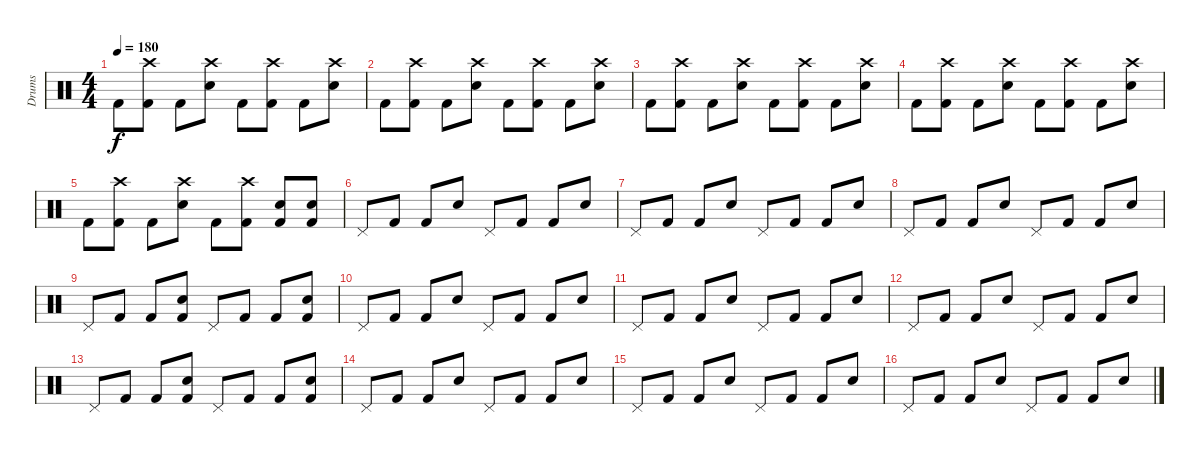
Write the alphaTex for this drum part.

\track ("Drums" "Drums") {instrument percussion}
\staff {score}
\articulation defaults
\ts (4 4)
\tempo 180
\clef neutral
\ks c "Kick (hit) 2".8{dy f}
("Crash high (hit)" "Kick (hit) 2").8 "Kick (hit) 2".8 ("Crash high (hit)" "Electric Snare (hit)").8 "Kick (hit) 2".8 ("Crash high (hit)" "Kick (hit) 2").8 "Kick (hit) 2".8 ("Crash high (hit)" "Electric Snare (hit)").8 |
"Kick (hit) 2".8 ("Crash high (hit)" "Kick (hit) 2").8 "Kick (hit) 2".8 ("Crash high (hit)" "Electric Snare (hit)").8 "Kick (hit) 2".8 ("Crash high (hit)" "Kick (hit) 2").8 "Kick (hit) 2".8 ("Crash high (hit)" "Electric Snare (hit)").8 |
"Kick (hit) 2".8 ("Crash high (hit)" "Kick (hit) 2").8 "Kick (hit) 2".8 ("Crash high (hit)" "Electric Snare (hit)").8 "Kick (hit) 2".8 ("Crash high (hit)" "Kick (hit) 2").8 "Kick (hit) 2".8 ("Crash high (hit)" "Electric Snare (hit)").8 |
"Kick (hit) 2".8 ("Crash high (hit)" "Kick (hit) 2").8 "Kick (hit) 2".8 ("Crash high (hit)" "Electric Snare (hit)").8 "Kick (hit) 2".8 ("Crash high (hit)" "Kick (hit) 2").8 "Kick (hit) 2".8 ("Crash high (hit)" "Electric Snare (hit)").8 |
"Kick (hit) 2".8 ("Crash high (hit)" "Kick (hit) 2").8 "Kick (hit) 2".8 ("Crash high (hit)" "Electric Snare (hit)").8 "Kick (hit) 2".8 ("Crash high (hit)" "Kick (hit) 2").8 ("Kick (hit) 2" "Electric Snare (hit)").8 ("Kick (hit) 2" "Electric Snare (hit)").8 |
"Pedal Hi-Hat (hit)".8 "Kick (hit) 2".8 "Kick (hit) 2".8 "Electric Snare (hit)".8 "Pedal Hi-Hat (hit)".8 "Kick (hit) 2".8 "Kick (hit) 2".8 "Electric Snare (hit)".8 |
"Pedal Hi-Hat (hit)".8 "Kick (hit) 2".8 "Kick (hit) 2".8 "Electric Snare (hit)".8 "Pedal Hi-Hat (hit)".8 "Kick (hit) 2".8 "Kick (hit) 2".8 "Electric Snare (hit)".8 |
"Pedal Hi-Hat (hit)".8 "Kick (hit) 2".8 "Kick (hit) 2".8 "Electric Snare (hit)".8 "Pedal Hi-Hat (hit)".8 "Kick (hit) 2".8 "Kick (hit) 2".8 "Electric Snare (hit)".8 |
"Pedal Hi-Hat (hit)".8 "Kick (hit) 2".8 "Kick (hit) 2".8 ("Kick (hit) 2" "Electric Snare (hit)").8 "Pedal Hi-Hat (hit)".8 "Kick (hit) 2".8 "Kick (hit) 2".8 ("Kick (hit) 2" "Electric Snare (hit)").8 |
"Pedal Hi-Hat (hit)".8 "Kick (hit) 2".8 "Kick (hit) 2".8 "Electric Snare (hit)".8 "Pedal Hi-Hat (hit)".8 "Kick (hit) 2".8 "Kick (hit) 2".8 "Electric Snare (hit)".8 |
"Pedal Hi-Hat (hit)".8 "Kick (hit) 2".8 "Kick (hit) 2".8 "Electric Snare (hit)".8 "Pedal Hi-Hat (hit)".8 "Kick (hit) 2".8 "Kick (hit) 2".8 "Electric Snare (hit)".8 |
"Pedal Hi-Hat (hit)".8 "Kick (hit) 2".8 "Kick (hit) 2".8 "Electric Snare (hit)".8 "Pedal Hi-Hat (hit)".8 "Kick (hit) 2".8 "Kick (hit) 2".8 "Electric Snare (hit)".8 |
"Pedal Hi-Hat (hit)".8 "Kick (hit) 2".8 "Kick (hit) 2".8 ("Kick (hit) 2" "Electric Snare (hit)").8 "Pedal Hi-Hat (hit)".8 "Kick (hit) 2".8 "Kick (hit) 2".8 ("Kick (hit) 2" "Electric Snare (hit)").8 |
"Pedal Hi-Hat (hit)".8 "Kick (hit) 2".8 "Kick (hit) 2".8 "Electric Snare (hit)".8 "Pedal Hi-Hat (hit)".8 "Kick (hit) 2".8 "Kick (hit) 2".8 "Electric Snare (hit)".8 |
"Pedal Hi-Hat (hit)".8 "Kick (hit) 2".8 "Kick (hit) 2".8 "Electric Snare (hit)".8 "Pedal Hi-Hat (hit)".8 "Kick (hit) 2".8 "Kick (hit) 2".8 "Electric Snare (hit)".8 |
"Pedal Hi-Hat (hit)".8 "Kick (hit) 2".8 "Kick (hit) 2".8 "Electric Snare (hit)".8 "Pedal Hi-Hat (hit)".8 "Kick (hit) 2".8 "Kick (hit) 2".8 "Electric Snare (hit)".8
